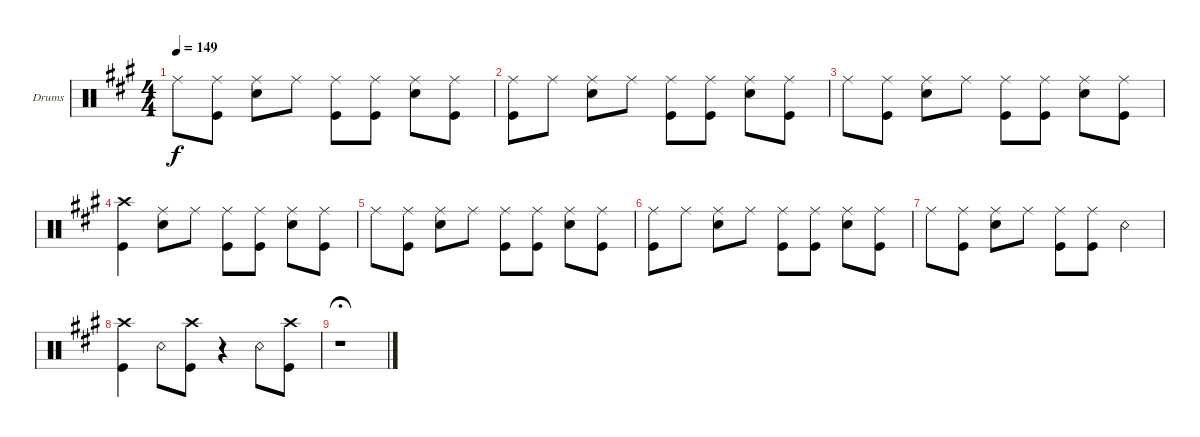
\defaultSystemsLayout 4
\bracketExtendMode groupsimilarinstruments
\firstSystemTrackNameOrientation horizontal
\otherSystemsTrackNameOrientation horizontal
\track ("Drums" "Drums") {instrument percussion}
\staff {score}
\articulation defaults
\ts (4 4)
\tempo 149
\clef neutral
\ks a "Ride (middle)".8{dy f}
("Ride (middle)" "Kick (hit)").8 ("Ride (middle)" "Snare (hit) 2").8 "Ride (middle)".8 ("Ride (middle)" "Kick (hit)").8 ("Ride (middle)" "Kick (hit)").8 ("Ride (middle)" "Snare (hit) 2").8 ("Ride (middle)" "Kick (hit)").8 |
("Kick (hit)" "Ride (middle)").8 "Ride (middle)".8 ("Ride (middle)" "Snare (hit) 2").8 "Ride (middle)".8 ("Ride (middle)" "Kick (hit)").8 ("Ride (middle)" "Kick (hit)").8 ("Ride (middle)" "Snare (hit) 2").8 ("Ride (middle)" "Kick (hit)").8 |
"Ride (middle)".8 ("Ride (middle)" "Kick (hit)").8 ("Ride (middle)" "Snare (hit) 2").8 "Ride (middle)".8 ("Ride (middle)" "Kick (hit)").8 ("Ride (middle)" "Kick (hit)").8 ("Ride (middle)" "Snare (hit) 2").8 ("Ride (middle)" "Kick (hit)").8 |
("Kick (hit)" "Crash high (hit)").4 ("Ride (middle)" "Snare (hit) 2").8 "Ride (middle)".8 ("Ride (middle)" "Kick (hit)").8 ("Ride (middle)" "Kick (hit)").8 ("Ride (middle)" "Snare (hit) 2").8 ("Ride (middle)" "Kick (hit)").8 |
"Ride (middle)".8 ("Ride (middle)" "Kick (hit)").8 ("Ride (middle)" "Snare (hit) 2").8 "Ride (middle)".8 ("Ride (middle)" "Kick (hit)").8 ("Ride (middle)" "Kick (hit)").8 ("Ride (middle)" "Snare (hit) 2").8 ("Ride (middle)" "Kick (hit)").8 |
("Kick (hit)" "Ride (middle)").8 "Ride (middle)".8 ("Ride (middle)" "Snare (hit) 2").8 "Ride (middle)".8 ("Ride (middle)" "Kick (hit)").8 ("Ride (middle)" "Kick (hit)").8 ("Ride (middle)" "Snare (hit) 2").8 ("Ride (middle)" "Kick (hit)").8 |
"Ride (middle)".8 ("Ride (middle)" "Kick (hit)").8 ("Ride (middle)" "Snare (hit) 2").8 "Ride (middle)".8 ("Ride (middle)" "Kick (hit)").8 ("Ride (middle)" "Kick (hit)").8 "Snare (rim shot)".4 |
("Kick (hit)" "Crash high (hit)").4 "Snare (rim shot)".8 ("Kick (hit)" "Crash high (hit)").8 r.4 "Snare (rim shot)".8 ("Kick (hit)" "Crash high (hit)").8 |
r.1{fermata (medium 1)}
